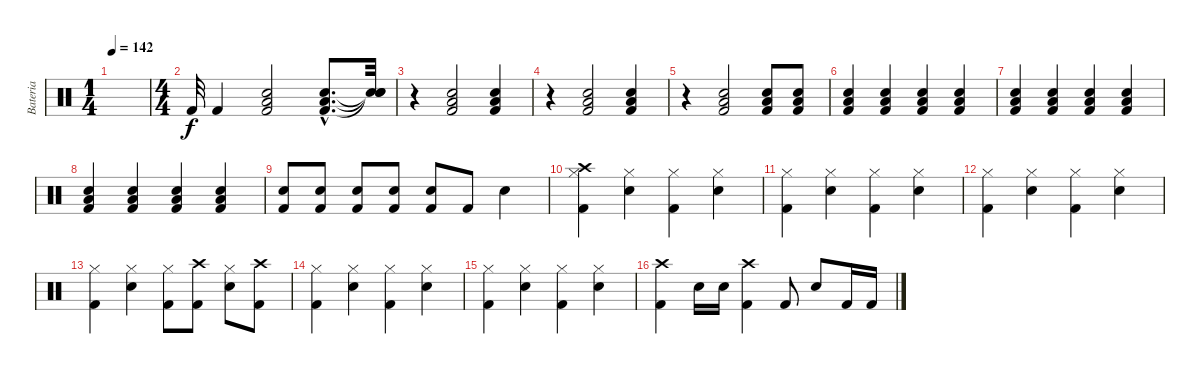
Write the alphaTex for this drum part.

\track ("Bateria" "Bateria") {instrument percussion}
\staff {score}
\articulation defaults
\ts (1 4)
\tempo 142
\clef neutral
\ks c
|
\ts (4 4)
"Kick (hit) 2".32 "Kick (hit) 2".4 ("Electric Snare (hit)" "Low Floor Tom (hit)" "Kick (hit) 2").2 ("Electric Snare (hit)"{hac} "Low Floor Tom (hit)"{hac} "Kick (hit) 2"{hac}).8{d} ("Snare (hit)"{t} "Snare (hit)"{t} "Snare (hit)"{t}).32 |
r.4 ("Electric Snare (hit)" "Low Floor Tom (hit)" "Kick (hit) 2").2 ("Electric Snare (hit)" "Low Floor Tom (hit)" "Kick (hit) 2").4 |
r.4 ("Electric Snare (hit)" "Low Floor Tom (hit)" "Kick (hit) 2").2 ("Electric Snare (hit)" "Low Floor Tom (hit)" "Kick (hit) 2").4 |
r.4 ("Electric Snare (hit)" "Low Floor Tom (hit)" "Kick (hit) 2").2 ("Electric Snare (hit)" "Low Floor Tom (hit)" "Kick (hit) 2").8 ("Electric Snare (hit)" "Low Floor Tom (hit)" "Kick (hit) 2").8 |
("Electric Snare (hit)" "Low Floor Tom (hit)" "Kick (hit) 2").4 ("Electric Snare (hit)" "Low Floor Tom (hit)" "Kick (hit) 2").4 ("Electric Snare (hit)" "Low Floor Tom (hit)" "Kick (hit) 2").4 ("Electric Snare (hit)" "Low Floor Tom (hit)" "Kick (hit) 2").4 |
("Electric Snare (hit)" "Low Floor Tom (hit)" "Kick (hit) 2").4 ("Electric Snare (hit)" "Low Floor Tom (hit)" "Kick (hit) 2").4 ("Electric Snare (hit)" "Low Floor Tom (hit)" "Kick (hit) 2").4 ("Electric Snare (hit)" "Low Floor Tom (hit)" "Kick (hit) 2").4 |
("Electric Snare (hit)" "Low Floor Tom (hit)" "Kick (hit) 2").4 ("Electric Snare (hit)" "Low Floor Tom (hit)" "Kick (hit) 2").4 ("Electric Snare (hit)" "Low Floor Tom (hit)" "Kick (hit) 2").4 ("Electric Snare (hit)" "Low Floor Tom (hit)" "Kick (hit) 2").4 |
("Electric Snare (hit)" "Kick (hit) 2").8 ("Electric Snare (hit)" "Kick (hit) 2").8 ("Electric Snare (hit)" "Kick (hit) 2").8 ("Electric Snare (hit)" "Kick (hit) 2").8 ("Electric Snare (hit)" "Kick (hit) 2").8 "Kick (hit) 2".8 "Electric Snare (hit)".4 |
("Crash high (hit)" "Hi-Hat (closed)" "Kick (hit) 2").4 ("Hi-Hat (closed)" "Electric Snare (hit)").4 ("Hi-Hat (closed)" "Kick (hit) 2").4 ("Hi-Hat (closed)" "Electric Snare (hit)").4 |
("Hi-Hat (closed)" "Kick (hit) 2").4 ("Hi-Hat (closed)" "Electric Snare (hit)").4 ("Hi-Hat (closed)" "Kick (hit) 2").4 ("Hi-Hat (closed)" "Electric Snare (hit)").4 |
("Hi-Hat (closed)" "Kick (hit) 2").4 ("Hi-Hat (closed)" "Electric Snare (hit)").4 ("Hi-Hat (closed)" "Kick (hit) 2").4 ("Hi-Hat (closed)" "Electric Snare (hit)").4 |
("Hi-Hat (closed)" "Kick (hit) 2").4 ("Hi-Hat (closed)" "Electric Snare (hit)").4 ("Hi-Hat (closed)" "Kick (hit) 2").8 ("Crash high (hit)" "Kick (hit) 2").8 ("Hi-Hat (closed)" "Electric Snare (hit)").8 ("Crash high (hit)" "Kick (hit) 2").8 |
("Hi-Hat (closed)" "Kick (hit) 2").4 ("Hi-Hat (closed)" "Electric Snare (hit)").4 ("Hi-Hat (closed)" "Kick (hit) 2").4 ("Hi-Hat (closed)" "Electric Snare (hit)").4 |
("Hi-Hat (closed)" "Kick (hit) 2").4 ("Hi-Hat (closed)" "Electric Snare (hit)").4 ("Hi-Hat (closed)" "Kick (hit) 2").4 ("Hi-Hat (closed)" "Electric Snare (hit)").4 |
("Crash high (hit)" "Kick (hit) 2").4 "Electric Snare (hit)".16 "Electric Snare (hit)".16 ("Crash high (hit)" "Kick (hit) 2").4 "Kick (hit) 2".8 "Electric Snare (hit)".8 "Kick (hit) 2".16 "Kick (hit) 2".16
